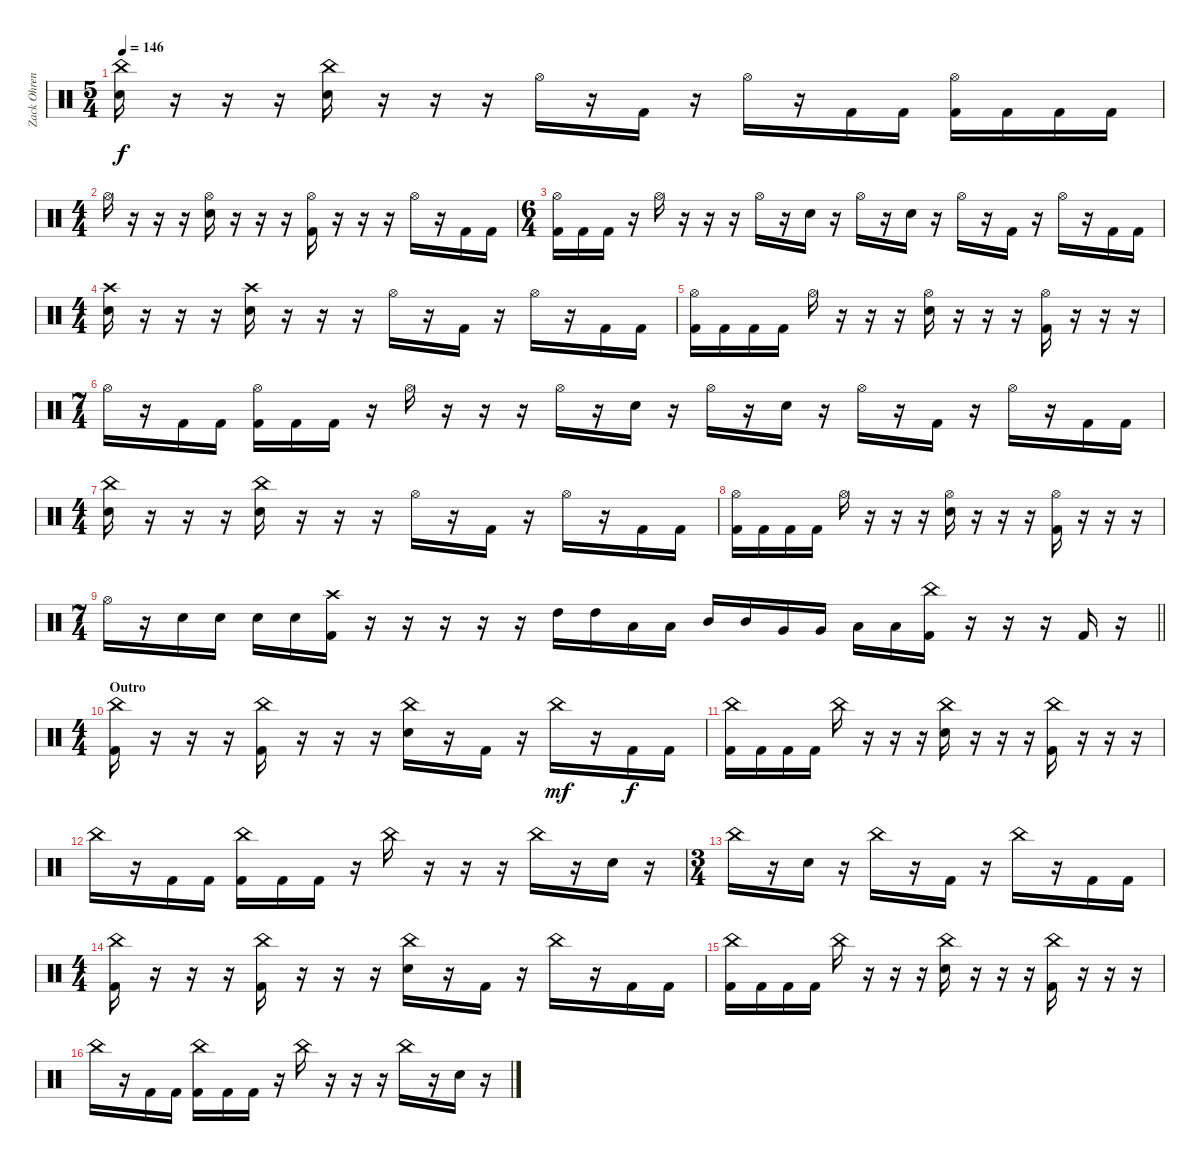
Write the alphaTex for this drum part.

\track ("Zack Ohren" "Zack Ohren") {instrument percussion}
\staff {score}
\articulation defaults
\ts (5 4)
\tempo 146
\clef neutral
\ks c
("Electric Snare (hit)" "China (hit)").16{dy f} r.16 r.16 r.16 ("Electric Snare (hit)" "China (hit)").16 r.16 r.16 r.16 "Hi-Hat (open)".16 r.16 "Kick (hit) 2".16 r.16 "Hi-Hat (open)".16 r.16 "Kick (hit) 2".16 "Kick (hit) 2".16 ("Kick (hit) 2" "Hi-Hat (open)").16 "Kick (hit) 2".16 "Kick (hit) 2".16 "Kick (hit) 2".16 |
\ts (4 4)
"Hi-Hat (open)".16 r.16 r.16 r.16 ("Electric Snare (hit)" "Hi-Hat (open)").16 r.16 r.16 r.16 ("Kick (hit) 2" "Hi-Hat (open)").16 r.16 r.16 r.16 "Hi-Hat (open)".16 r.16 "Kick (hit) 2".16 "Kick (hit) 2".16 |
\ts (6 4)
("Kick (hit) 2" "Hi-Hat (open)").16 "Kick (hit) 2".16 "Kick (hit) 2".16 r.16 "Hi-Hat (open)".16 r.16 r.16 r.16 "Hi-Hat (open)".16 r.16 "Electric Snare (hit)".16 r.16 "Hi-Hat (open)".16 r.16 "Electric Snare (hit)".16 r.16 "Hi-Hat (open)".16 r.16 "Kick (hit) 2".16 r.16 "Hi-Hat (open)".16 r.16 "Kick (hit) 2".16 "Kick (hit) 2".16 |
\ts (4 4)
("Electric Snare (hit)" "Crash high (hit)").16 r.16 r.16 r.16 ("Electric Snare (hit)" "Crash high (hit)").16 r.16 r.16 r.16 "Hi-Hat (open)".16 r.16 "Kick (hit) 2".16 r.16 "Hi-Hat (open)".16 r.16 "Kick (hit) 2".16 "Kick (hit) 2".16 |
("Kick (hit) 2" "Hi-Hat (open)").16 "Kick (hit) 2".16 "Kick (hit) 2".16 "Kick (hit) 2".16 "Hi-Hat (open)".16 r.16 r.16 r.16 ("Electric Snare (hit)" "Hi-Hat (open)").16 r.16 r.16 r.16 ("Kick (hit) 2" "Hi-Hat (open)").16 r.16 r.16 r.16 |
\ts (7 4)
"Hi-Hat (open)".16 r.16 "Kick (hit) 2".16 "Kick (hit) 2".16 ("Kick (hit) 2" "Hi-Hat (open)").16 "Kick (hit) 2".16 "Kick (hit) 2".16 r.16 "Hi-Hat (open)".16 r.16 r.16 r.16 "Hi-Hat (open)".16 r.16 "Electric Snare (hit)".16 r.16 "Hi-Hat (open)".16 r.16 "Electric Snare (hit)".16 r.16 "Hi-Hat (open)".16 r.16 "Kick (hit) 2".16 r.16 "Hi-Hat (open)".16 r.16 "Kick (hit) 2".16 "Kick (hit) 2".16 |
\ts (4 4)
("Electric Snare (hit)" "China (hit)").16 r.16 r.16 r.16 ("Electric Snare (hit)" "China (hit)").16 r.16 r.16 r.16 "Hi-Hat (open)".16 r.16 "Kick (hit) 2".16 r.16 "Hi-Hat (open)".16 r.16 "Kick (hit) 2".16 "Kick (hit) 2".16 |
("Kick (hit) 2" "Hi-Hat (open)").16 "Kick (hit) 2".16 "Kick (hit) 2".16 "Kick (hit) 2".16 "Hi-Hat (open)".16 r.16 r.16 r.16 ("Electric Snare (hit)" "Hi-Hat (open)").16 r.16 r.16 r.16 ("Kick (hit) 2" "Hi-Hat (open)").16 r.16 r.16 r.16 |
\ts (7 4)
\barLineRight lightlight "Hi-Hat (open)".16
r.16 "Electric Snare (hit)".16 "Electric Snare (hit)".16 "Electric Snare (hit)".16 "Electric Snare (hit)".16 ("Kick (hit) 2" "Crash high (hit)").16 r.16 r.16 r.16 r.16 r.16 "High Tom (hit)".16 "High Tom (hit)".16 "Low Tom (hit)".16 "Low Tom (hit)".16 "Mid Tom (hit)".16 "Mid Tom (hit)".16 "Very Low Tom (hit)".16 "Very Low Tom (hit)".16 "Low Tom (hit)".16 "Low Tom (hit)".16 ("Kick (hit) 2" "China (hit)").16 r.16 r.16 r.16 "Kick (hit) 2".16 r.16 |
\ts (4 4)
\section ("" "Outro")
("Kick (hit) 2" "China (hit)").16 r.16 r.16 r.16 ("Kick (hit) 2" "China (hit)").16 r.16 r.16 r.16 ("Electric Snare (hit)" "China (hit)").16 r.16 "Kick (hit) 2".16 r.16 "China (hit)".16{dy mf} r.16 "Kick (hit) 2".16{dy f} "Kick (hit) 2".16 |
("Kick (hit) 2" "China (hit)").16 "Kick (hit) 2".16 "Kick (hit) 2".16 "Kick (hit) 2".16 "China (hit)".16 r.16 r.16 r.16 ("Electric Snare (hit)" "China (hit)").16 r.16 r.16 r.16 ("Kick (hit) 2" "China (hit)").16 r.16 r.16 r.16 |
"China (hit)".16 r.16 "Kick (hit) 2".16 "Kick (hit) 2".16 ("Kick (hit) 2" "China (hit)").16 "Kick (hit) 2".16 "Kick (hit) 2".16 r.16 "China (hit)".16 r.16 r.16 r.16 "China (hit)".16 r.16 "Electric Snare (hit)".16 r.16 |
\ts (3 4)
"China (hit)".16 r.16 "Electric Snare (hit)".16 r.16 "China (hit)".16 r.16 "Kick (hit) 2".16 r.16 "China (hit)".16 r.16 "Kick (hit) 2".16 "Kick (hit) 2".16 |
\ts (4 4)
("Kick (hit) 2" "China (hit)").16 r.16 r.16 r.16 ("Kick (hit) 2" "China (hit)").16 r.16 r.16 r.16 ("Electric Snare (hit)" "China (hit)").16 r.16 "Kick (hit) 2".16 r.16 "China (hit)".16 r.16 "Kick (hit) 2".16 "Kick (hit) 2".16 |
("Kick (hit) 2" "China (hit)").16 "Kick (hit) 2".16 "Kick (hit) 2".16 "Kick (hit) 2".16 "China (hit)".16 r.16 r.16 r.16 ("Electric Snare (hit)" "China (hit)").16 r.16 r.16 r.16 ("Kick (hit) 2" "China (hit)").16 r.16 r.16 r.16 |
"China (hit)".16 r.16 "Kick (hit) 2".16 "Kick (hit) 2".16 ("Kick (hit) 2" "China (hit)").16 "Kick (hit) 2".16 "Kick (hit) 2".16 r.16 "China (hit)".16 r.16 r.16 r.16 "China (hit)".16 r.16 "Electric Snare (hit)".16 r.16
